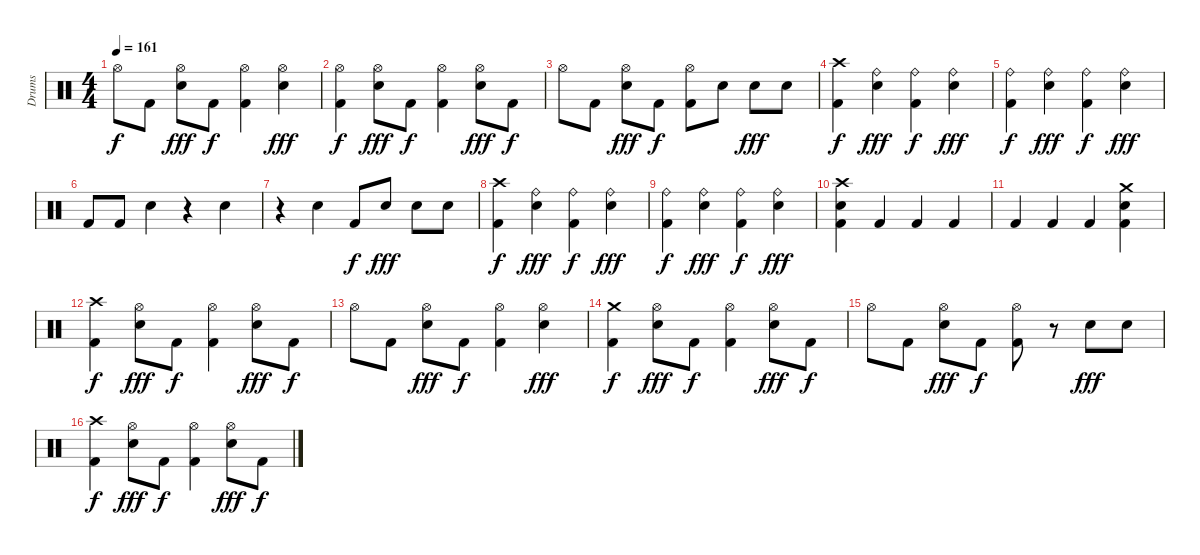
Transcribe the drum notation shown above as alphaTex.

\track ("Drums" "Drums") {instrument percussion}
\staff {score}
\articulation defaults
\ts (4 4)
\tempo 161
\clef neutral
\ks c "Hi-Hat (open)".8{dy f} "Kick (hit) 2".8
("Hi-Hat (open)" "Electric Snare (hit)").8{dy fff} "Kick (hit) 2".8{dy f} ("Hi-Hat (open)" "Kick (hit) 2").4 ("Hi-Hat (open)" "Electric Snare (hit)").4{dy fff} |
("Hi-Hat (open)" "Kick (hit) 2").4{dy f} ("Hi-Hat (open)" "Electric Snare (hit)").8{dy fff} "Kick (hit) 2".8{dy f} ("Hi-Hat (open)" "Kick (hit) 2").4 ("Hi-Hat (open)" "Electric Snare (hit)").8{dy fff} "Kick (hit) 2".8{dy f} |
"Hi-Hat (open)".8 "Kick (hit) 2".8 ("Hi-Hat (open)" "Electric Snare (hit)").8{dy fff} "Kick (hit) 2".8{dy f} ("Hi-Hat (open)" "Kick (hit) 2").8 "Electric Snare (hit)".8 "Electric Snare (hit)".8{dy fff} "Electric Snare (hit)".8 |
("Crash high (hit)" "Kick (hit) 2").4{dy f} ("Ride (bell)" "Electric Snare (hit)").4{dy fff} ("Ride (bell)" "Kick (hit) 2").4{dy f} ("Ride (bell)" "Electric Snare (hit)").4{dy fff} |
("Ride (bell)" "Kick (hit) 2").4{dy f} ("Ride (bell)" "Electric Snare (hit)").4{dy fff} ("Ride (bell)" "Kick (hit) 2").4{dy f} ("Ride (bell)" "Electric Snare (hit)").4{dy fff} |
"Kick (hit) 2".8 "Kick (hit) 2".8 "Electric Snare (hit)".4 r.4 "Electric Snare (hit)".4 |
r.4 "Electric Snare (hit)".4 "Kick (hit) 2".8{dy f} "Electric Snare (hit)".8{dy fff} "Electric Snare (hit)".8 "Electric Snare (hit)".8 |
("Crash high (hit)" "Kick (hit) 2").4{dy f} ("Ride (bell)" "Electric Snare (hit)").4{dy fff} ("Ride (bell)" "Kick (hit) 2").4{dy f} ("Ride (bell)" "Electric Snare (hit)").4{dy fff} |
("Ride (bell)" "Kick (hit) 2").4{dy f} ("Ride (bell)" "Electric Snare (hit)").4{dy fff} ("Ride (bell)" "Kick (hit) 2").4{dy f} ("Ride (bell)" "Electric Snare (hit)").4{dy fff} |
("Crash high (hit)" "Electric Snare (hit)" "Kick (hit) 2").4 "Kick (hit) 2".4 "Kick (hit) 2".4 "Kick (hit) 2".4 |
"Kick (hit) 2".4 "Kick (hit) 2".4 "Kick (hit) 2".4 ("Crash medium (hit)" "Electric Snare (hit)" "Kick (hit) 2").4 |
("Crash high (hit)" "Kick (hit) 2").4{dy f} ("Hi-Hat (open)" "Electric Snare (hit)").8{dy fff} "Kick (hit) 2".8{dy f} ("Hi-Hat (open)" "Kick (hit) 2").4 ("Hi-Hat (open)" "Electric Snare (hit)").8{dy fff} "Kick (hit) 2".8{dy f} |
"Hi-Hat (open)".8 "Kick (hit) 2".8 ("Hi-Hat (open)" "Electric Snare (hit)").8{dy fff} "Kick (hit) 2".8{dy f} ("Hi-Hat (open)" "Kick (hit) 2").4 ("Hi-Hat (open)" "Electric Snare (hit)").4{dy fff} |
("Crash medium (hit)" "Kick (hit) 2").4{dy f} ("Hi-Hat (open)" "Electric Snare (hit)").8{dy fff} "Kick (hit) 2".8{dy f} ("Hi-Hat (open)" "Kick (hit) 2").4 ("Hi-Hat (open)" "Electric Snare (hit)").8{dy fff} "Kick (hit) 2".8{dy f} |
"Hi-Hat (open)".8 "Kick (hit) 2".8 ("Hi-Hat (open)" "Electric Snare (hit)").8{dy fff} "Kick (hit) 2".8{dy f} ("Hi-Hat (open)" "Kick (hit) 2").8 r.8 "Electric Snare (hit)".8{dy fff} "Electric Snare (hit)".8 |
("Crash high (hit)" "Kick (hit) 2").4{dy f} ("Hi-Hat (open)" "Electric Snare (hit)").8{dy fff} "Kick (hit) 2".8{dy f} ("Hi-Hat (open)" "Kick (hit) 2").4 ("Hi-Hat (open)" "Electric Snare (hit)").8{dy fff} "Kick (hit) 2".8{dy f}
